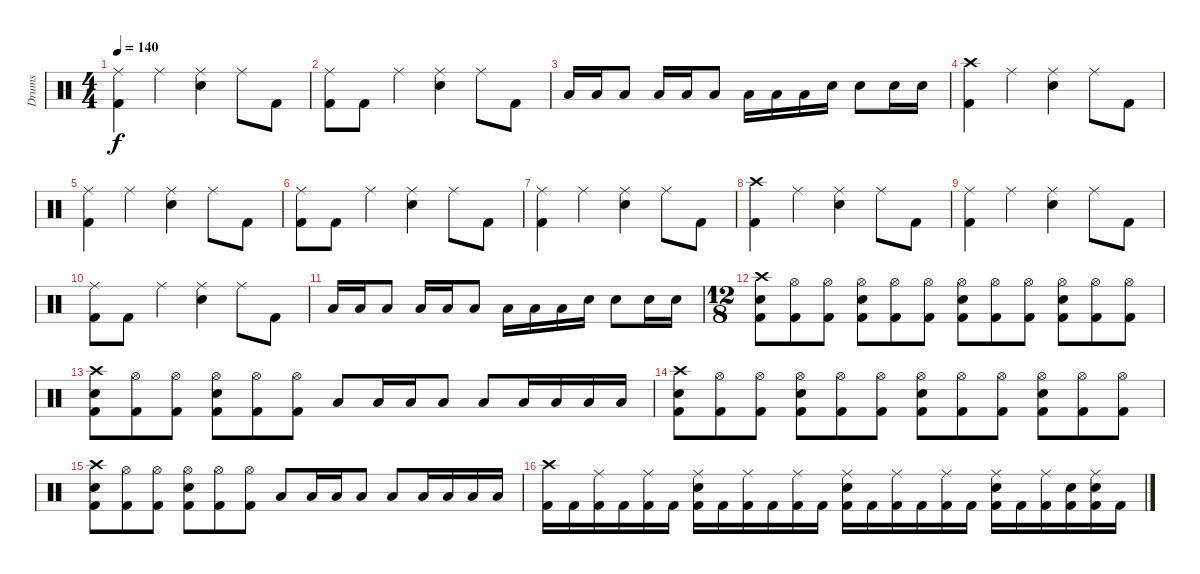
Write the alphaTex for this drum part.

\track ("Drums" "Drums") {instrument percussion}
\staff {score}
\articulation defaults
\ts (4 4)
\tempo 140
\clef neutral
\ks c
("Kick (hit) 2" "Ride (middle)").4{dy f} "Ride (middle)".4 ("Snare (hit) 2" "Ride (middle)").4 "Ride (middle)".8 "Kick (hit) 2".8 |
("Ride (middle)" "Kick (hit) 2").8 "Kick (hit) 2".8 "Ride (middle)".4 ("Snare (hit) 2" "Ride (middle)").4 "Ride (middle)".8 "Kick (hit) 2".8 |
"Low Tom (hit)".16 "Low Tom (hit)".16 "Low Tom (hit)".8 "Low Floor Tom (hit)".16 "Low Floor Tom (hit)".16 "Low Floor Tom (hit)".8 "Low Floor Tom (hit)".16 "Low Floor Tom (hit)".16 "Low Floor Tom (hit)".16 "Snare (hit) 2".16 "Snare (hit) 2".8 "Snare (hit) 2".16 "Snare (hit) 2".16 |
("Kick (hit) 2" "Crash high (hit)").4 "Ride (middle)".4 ("Snare (hit) 2" "Ride (middle)").4 "Ride (middle)".8 "Kick (hit) 2".8 |
("Kick (hit) 2" "Ride (middle)").4 "Ride (middle)".4 ("Snare (hit) 2" "Ride (middle)").4 "Ride (middle)".8 "Kick (hit) 2".8 |
("Ride (middle)" "Kick (hit) 2").8 "Kick (hit) 2".8 "Ride (middle)".4 ("Snare (hit) 2" "Ride (middle)").4 "Ride (middle)".8 "Kick (hit) 2".8 |
("Kick (hit) 2" "Ride (middle)").4 "Ride (middle)".4 ("Snare (hit) 2" "Ride (middle)").4 "Ride (middle)".8 "Kick (hit) 2".8 |
("Kick (hit) 2" "Crash high (hit)").4 "Ride (middle)".4 ("Snare (hit) 2" "Ride (middle)").4 "Ride (middle)".8 "Kick (hit) 2".8 |
("Kick (hit) 2" "Ride (middle)").4 "Ride (middle)".4 ("Snare (hit) 2" "Ride (middle)").4 "Ride (middle)".8 "Kick (hit) 2".8 |
("Ride (middle)" "Kick (hit) 2").8 "Kick (hit) 2".8 "Ride (middle)".4 ("Snare (hit) 2" "Ride (middle)").4 "Ride (middle)".8 "Kick (hit) 2".8 |
"Low Tom (hit)".16 "Low Tom (hit)".16 "Low Tom (hit)".8 "Low Floor Tom (hit)".16 "Low Floor Tom (hit)".16 "Low Floor Tom (hit)".8 "Low Floor Tom (hit)".16 "Low Floor Tom (hit)".16 "Low Floor Tom (hit)".16 "Snare (hit) 2".16 "Snare (hit) 2".8 "Snare (hit) 2".16 "Snare (hit) 2".16 |
\ts (12 8)
("Crash high (hit)" "Kick (hit) 2" "Snare (hit) 2").8 ("Kick (hit) 2" "Hi-Hat (open)").8 ("Hi-Hat (open)" "Kick (hit) 2").8 ("Snare (hit) 2" "Hi-Hat (open)" "Kick (hit) 2").8 ("Kick (hit) 2" "Hi-Hat (open)").8 ("Hi-Hat (open)" "Kick (hit) 2").8 ("Snare (hit) 2" "Hi-Hat (open)" "Kick (hit) 2").8 ("Kick (hit) 2" "Hi-Hat (open)").8 ("Hi-Hat (open)" "Kick (hit) 2").8 ("Snare (hit) 2" "Hi-Hat (open)" "Kick (hit) 2").8 ("Kick (hit) 2" "Hi-Hat (open)").8 ("Hi-Hat (open)" "Kick (hit) 2").8 |
("Snare (hit) 2" "Crash high (hit)" "Kick (hit) 2").8 ("Kick (hit) 2" "Hi-Hat (open)").8 ("Hi-Hat (open)" "Kick (hit) 2").8 ("Snare (hit) 2" "Hi-Hat (open)" "Kick (hit) 2").8 ("Kick (hit) 2" "Hi-Hat (open)").8 ("Hi-Hat (open)" "Kick (hit) 2").8 "Low Tom (hit)".8 "Low Tom (hit)".16 "Low Tom (hit)".16 "Low Tom (hit)".8 "Low Floor Tom (hit)".8 "Low Floor Tom (hit)".16 "Low Floor Tom (hit)".16 "Low Floor Tom (hit)".16 "Low Floor Tom (hit)".16 |
("Kick (hit) 2" "Crash high (hit)" "Snare (hit) 2").8 ("Kick (hit) 2" "Hi-Hat (open)").8 ("Hi-Hat (open)" "Kick (hit) 2").8 ("Snare (hit) 2" "Hi-Hat (open)" "Kick (hit) 2").8 ("Kick (hit) 2" "Hi-Hat (open)").8 ("Hi-Hat (open)" "Kick (hit) 2").8 ("Snare (hit) 2" "Hi-Hat (open)" "Kick (hit) 2").8 ("Kick (hit) 2" "Hi-Hat (open)").8 ("Hi-Hat (open)" "Kick (hit) 2").8 ("Snare (hit) 2" "Hi-Hat (open)" "Kick (hit) 2").8 ("Kick (hit) 2" "Hi-Hat (open)").8 ("Hi-Hat (open)" "Kick (hit) 2").8 |
("Snare (hit) 2" "Crash high (hit)" "Kick (hit) 2").8 ("Kick (hit) 2" "Hi-Hat (open)").8 ("Hi-Hat (open)" "Kick (hit) 2").8 ("Snare (hit) 2" "Hi-Hat (open)" "Kick (hit) 2").8 ("Kick (hit) 2" "Hi-Hat (open)").8 ("Hi-Hat (open)" "Kick (hit) 2").8 "Low Tom (hit)".8 "Low Tom (hit)".16 "Low Tom (hit)".16 "Low Tom (hit)".8 "Low Floor Tom (hit)".8 "Low Floor Tom (hit)".16 "Low Floor Tom (hit)".16 "Low Floor Tom (hit)".16 "Low Floor Tom (hit)".16 |
("Crash high (hit)" "Kick (hit) 2").16 "Kick (hit) 2".16 ("Kick (hit) 2" "Ride (middle)").16 "Kick (hit) 2".16 ("Kick (hit) 2" "Ride (middle)").16 "Kick (hit) 2".16 ("Ride (middle)" "Kick (hit) 2" "Snare (hit) 2").16 "Kick (hit) 2".16 ("Ride (middle)" "Kick (hit) 2").16 "Kick (hit) 2".16 ("Kick (hit) 2" "Ride (middle)").16 "Kick (hit) 2".16 ("Ride (middle)" "Kick (hit) 2" "Snare (hit) 2").16 "Kick (hit) 2".16 ("Ride (middle)" "Kick (hit) 2").16 "Kick (hit) 2".16 ("Kick (hit) 2" "Ride (middle)").16 "Kick (hit) 2".16 ("Ride (middle)" "Kick (hit) 2" "Snare (hit) 2").16 "Kick (hit) 2".16 ("Ride (middle)" "Kick (hit) 2").16 ("Kick (hit) 2" "Snare (hit) 2").16 ("Snare (hit) 2" "Kick (hit) 2" "Ride (middle)").16 "Kick (hit) 2".16
